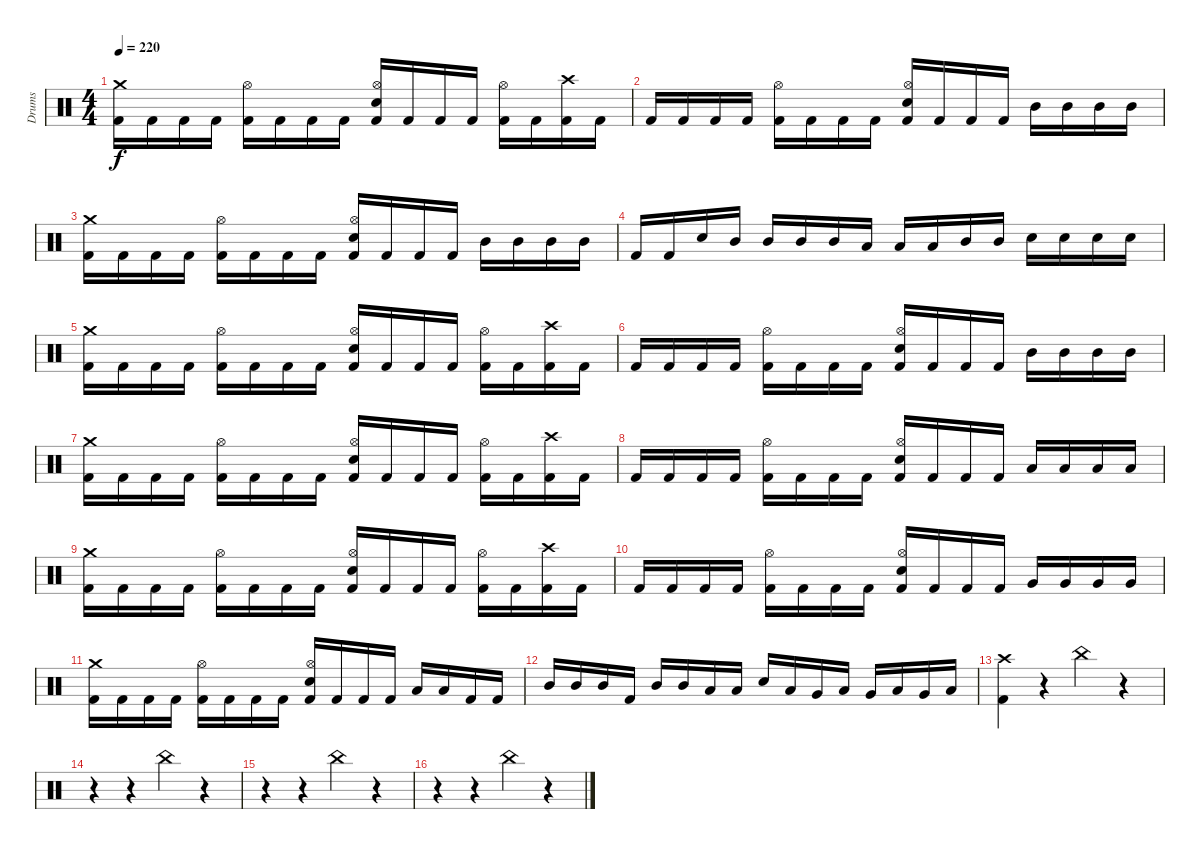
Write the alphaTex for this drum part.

\track ("Drums" "Drums") {instrument percussion}
\staff {score}
\articulation defaults
\ts (4 4)
\tempo 220
\clef neutral
\ks c
("Kick (hit) 2" "Crash medium (hit)").16{dy f} "Kick (hit) 2".16 "Kick (hit) 2".16 "Kick (hit) 2".16 ("Kick (hit) 2" "Hi-Hat (open)").16 "Kick (hit) 2".16 "Kick (hit) 2".16 "Kick (hit) 2".16 ("Kick (hit) 2" "Electric Snare (hit)" "Hi-Hat (open)").16 "Kick (hit) 2".16 "Kick (hit) 2".16 "Kick (hit) 2".16 ("Kick (hit) 2" "Hi-Hat (open)").16 "Kick (hit) 2".16 ("Kick (hit) 2" "Crash high (hit)").16 "Kick (hit) 2".16 |
"Kick (hit) 2".16 "Kick (hit) 2".16 "Kick (hit) 2".16 "Kick (hit) 2".16 ("Kick (hit) 2" "Hi-Hat (open)").16 "Kick (hit) 2".16 "Kick (hit) 2".16 "Kick (hit) 2".16 ("Kick (hit) 2" "Electric Snare (hit)" "Hi-Hat (open)").16 "Kick (hit) 2".16 "Kick (hit) 2".16 "Kick (hit) 2".16 "Mid Tom (hit)".16 "Mid Tom (hit)".16 "Mid Tom (hit)".16 "Mid Tom (hit)".16 |
("Kick (hit) 2" "Crash medium (hit)").16 "Kick (hit) 2".16 "Kick (hit) 2".16 "Kick (hit) 2".16 ("Kick (hit) 2" "Hi-Hat (open)").16 "Kick (hit) 2".16 "Kick (hit) 2".16 "Kick (hit) 2".16 ("Kick (hit) 2" "Electric Snare (hit)" "Hi-Hat (open)").16 "Kick (hit) 2".16 "Kick (hit) 2".16 "Kick (hit) 2".16 "Mid Tom (hit)".16 "Mid Tom (hit)".16 "Mid Tom (hit)".16 "Mid Tom (hit)".16 |
"Kick (hit) 2".16 "Kick (hit) 2".16 "Electric Snare (hit)".16 "Mid Tom (hit)".16 "Mid Tom (hit)".16 "Mid Tom (hit)".16 "Mid Tom (hit)".16 "Low Tom (hit)".16 "Low Tom (hit)".16 "Low Tom (hit)".16 "Mid Tom (hit)".16 "Mid Tom (hit)".16 "Electric Snare (hit)".16 "Electric Snare (hit)".16 "Electric Snare (hit)".16 "Electric Snare (hit)".16 |
("Kick (hit) 2" "Crash medium (hit)").16 "Kick (hit) 2".16 "Kick (hit) 2".16 "Kick (hit) 2".16 ("Kick (hit) 2" "Hi-Hat (open)").16 "Kick (hit) 2".16 "Kick (hit) 2".16 "Kick (hit) 2".16 ("Kick (hit) 2" "Electric Snare (hit)" "Hi-Hat (open)").16 "Kick (hit) 2".16 "Kick (hit) 2".16 "Kick (hit) 2".16 ("Kick (hit) 2" "Hi-Hat (open)").16 "Kick (hit) 2".16 ("Kick (hit) 2" "Crash high (hit)").16 "Kick (hit) 2".16 |
"Kick (hit) 2".16 "Kick (hit) 2".16 "Kick (hit) 2".16 "Kick (hit) 2".16 ("Kick (hit) 2" "Hi-Hat (open)").16 "Kick (hit) 2".16 "Kick (hit) 2".16 "Kick (hit) 2".16 ("Kick (hit) 2" "Electric Snare (hit)" "Hi-Hat (open)").16 "Kick (hit) 2".16 "Kick (hit) 2".16 "Kick (hit) 2".16 "Mid Tom (hit)".16 "Mid Tom (hit)".16 "Mid Tom (hit)".16 "Mid Tom (hit)".16 |
("Kick (hit) 2" "Crash medium (hit)").16 "Kick (hit) 2".16 "Kick (hit) 2".16 "Kick (hit) 2".16 ("Kick (hit) 2" "Hi-Hat (open)").16 "Kick (hit) 2".16 "Kick (hit) 2".16 "Kick (hit) 2".16 ("Kick (hit) 2" "Electric Snare (hit)" "Hi-Hat (open)").16 "Kick (hit) 2".16 "Kick (hit) 2".16 "Kick (hit) 2".16 ("Kick (hit) 2" "Hi-Hat (open)").16 "Kick (hit) 2".16 ("Kick (hit) 2" "Crash high (hit)").16 "Kick (hit) 2".16 |
"Kick (hit) 2".16 "Kick (hit) 2".16 "Kick (hit) 2".16 "Kick (hit) 2".16 ("Kick (hit) 2" "Hi-Hat (open)").16 "Kick (hit) 2".16 "Kick (hit) 2".16 "Kick (hit) 2".16 ("Kick (hit) 2" "Electric Snare (hit)" "Hi-Hat (open)").16 "Kick (hit) 2".16 "Kick (hit) 2".16 "Kick (hit) 2".16 "Low Tom (hit)".16 "Low Tom (hit)".16 "Low Tom (hit)".16 "Low Tom (hit)".16 |
("Kick (hit) 2" "Crash medium (hit)").16 "Kick (hit) 2".16 "Kick (hit) 2".16 "Kick (hit) 2".16 ("Kick (hit) 2" "Hi-Hat (open)").16 "Kick (hit) 2".16 "Kick (hit) 2".16 "Kick (hit) 2".16 ("Kick (hit) 2" "Electric Snare (hit)" "Hi-Hat (open)").16 "Kick (hit) 2".16 "Kick (hit) 2".16 "Kick (hit) 2".16 ("Kick (hit) 2" "Hi-Hat (open)").16 "Kick (hit) 2".16 ("Kick (hit) 2" "Crash high (hit)").16 "Kick (hit) 2".16 |
"Kick (hit) 2".16 "Kick (hit) 2".16 "Kick (hit) 2".16 "Kick (hit) 2".16 ("Kick (hit) 2" "Hi-Hat (open)").16 "Kick (hit) 2".16 "Kick (hit) 2".16 "Kick (hit) 2".16 ("Kick (hit) 2" "Electric Snare (hit)" "Hi-Hat (open)").16 "Kick (hit) 2".16 "Kick (hit) 2".16 "Kick (hit) 2".16 "Very Low Tom (hit)".16 "Very Low Tom (hit)".16 "Very Low Tom (hit)".16 "Very Low Tom (hit)".16 |
("Kick (hit) 2" "Crash medium (hit)").16 "Kick (hit) 2".16 "Kick (hit) 2".16 "Kick (hit) 2".16 ("Kick (hit) 2" "Hi-Hat (open)").16 "Kick (hit) 2".16 "Kick (hit) 2".16 "Kick (hit) 2".16 ("Kick (hit) 2" "Electric Snare (hit)" "Hi-Hat (open)").16 "Kick (hit) 2".16 "Kick (hit) 2".16 "Kick (hit) 2".16 "Low Tom (hit)".16 "Low Tom (hit)".16 "Kick (hit) 2".16 "Kick (hit) 2".16 |
"Mid Tom (hit)".16 "Mid Tom (hit)".16 "Mid Tom (hit)".16 "Kick (hit) 2".16 "Mid Tom (hit)".16 "Mid Tom (hit)".16 "Low Tom (hit)".16 "Low Tom (hit)".16 "Electric Snare (hit)".16 "Low Tom (hit)".16 "Very Low Tom (hit)".16 "Low Tom (hit)".16 "Very Low Tom (hit)".16 "Low Tom (hit)".16 "Very Low Tom (hit)".16 "Low Tom (hit)".16 |
("Kick (hit) 2" "Crash high (hit)").4 r.4 "China (hit)".4 r.4 |
r.4 r.4 "China (hit)".4 r.4 |
r.4 r.4 "China (hit)".4 r.4 |
r.4 r.4 "China (hit)".4 r.4
